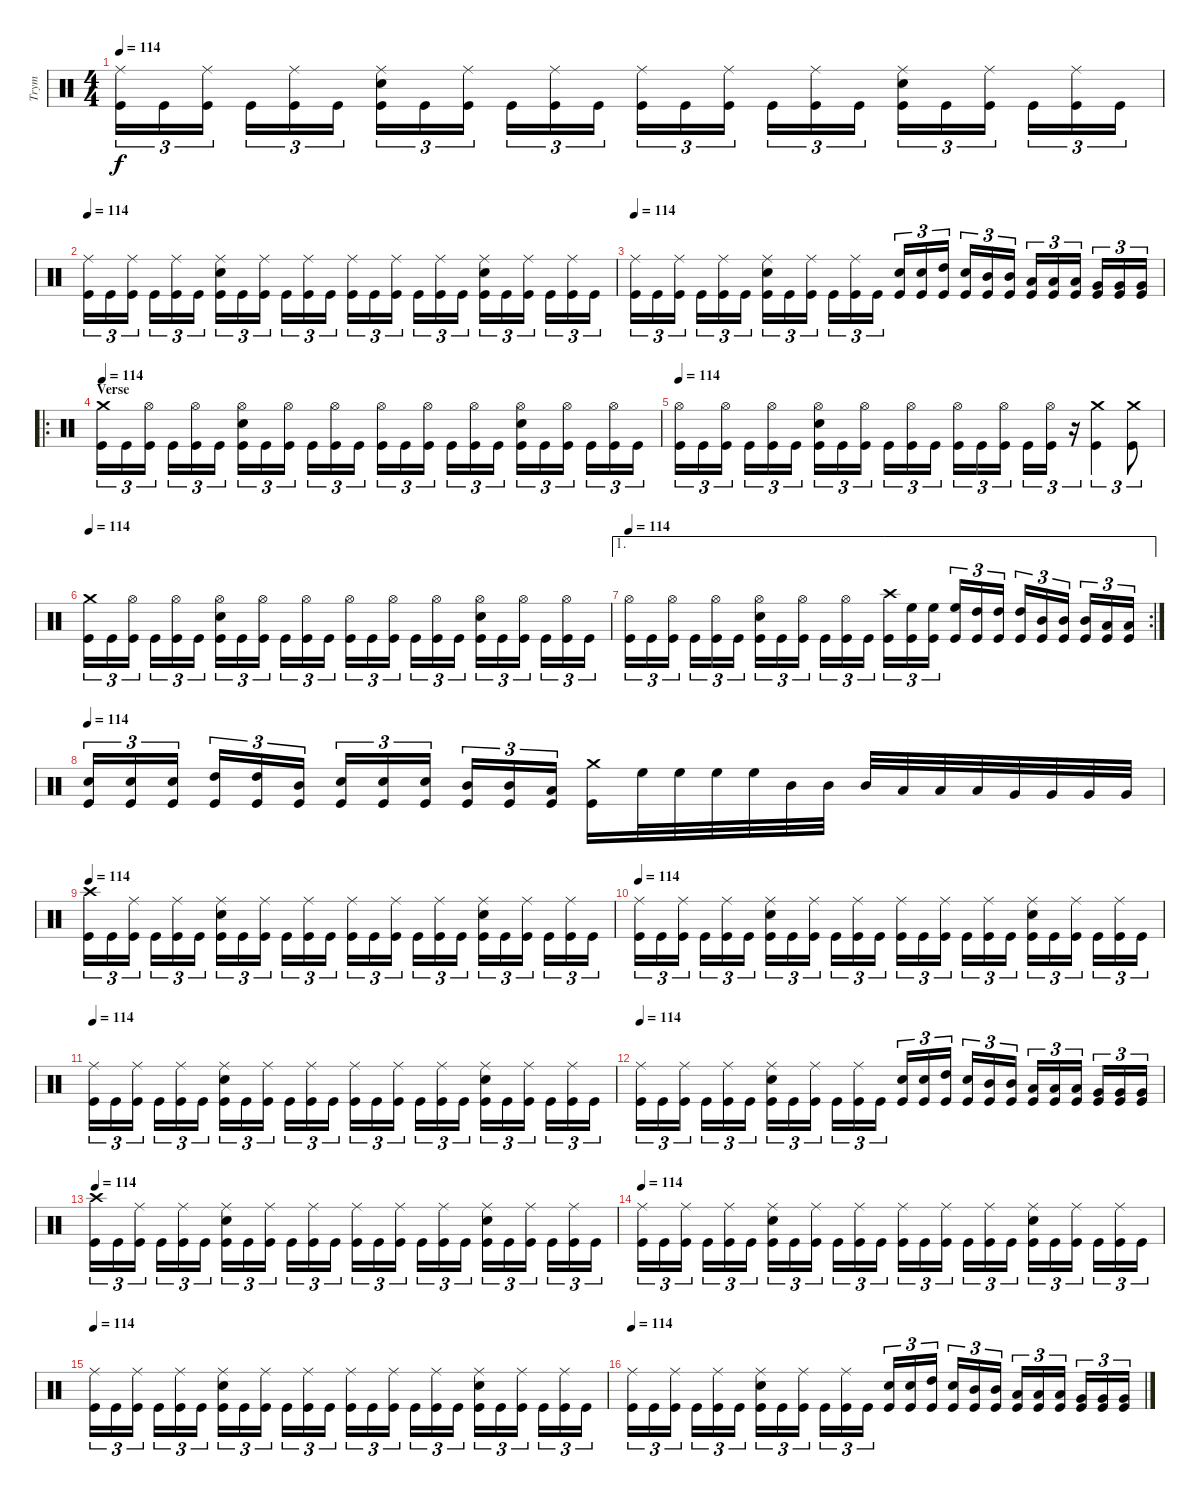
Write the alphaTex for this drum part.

\track ("Trym" "Trym") {instrument percussion}
\staff {score}
\articulation defaults
\ts (4 4)
\tempo 114
\clef neutral
\ks c
("Ride (middle)" "Kick (hit)").16{tu (3 2) dy f} "Kick (hit)".16{tu (3 2)} ("Ride (middle)" "Kick (hit)").16{tu (3 2)} "Kick (hit)".16{tu (3 2)} ("Ride (middle)" "Kick (hit)").16{tu (3 2)} "Kick (hit)".16{tu (3 2)} ("Ride (middle)" "Electric Snare (hit)" "Kick (hit)").16{tu (3 2)} "Kick (hit)".16{tu (3 2)} ("Ride (middle)" "Kick (hit)").16{tu (3 2)} "Kick (hit)".16{tu (3 2)} ("Ride (middle)" "Kick (hit)").16{tu (3 2)} "Kick (hit)".16{tu (3 2)} ("Ride (middle)" "Kick (hit)").16{tu (3 2)} "Kick (hit)".16{tu (3 2)} ("Ride (middle)" "Kick (hit)").16{tu (3 2)} "Kick (hit)".16{tu (3 2)} ("Ride (middle)" "Kick (hit)").16{tu (3 2)} "Kick (hit)".16{tu (3 2)} ("Ride (middle)" "Electric Snare (hit)" "Kick (hit)").16{tu (3 2)} "Kick (hit)".16{tu (3 2)} ("Ride (middle)" "Kick (hit)").16{tu (3 2)} "Kick (hit)".16{tu (3 2)} ("Ride (middle)" "Kick (hit)").16{tu (3 2)} "Kick (hit)".16{tu (3 2)} |
\tempo 114
("Ride (middle)" "Kick (hit)").16{tu (3 2)} "Kick (hit)".16{tu (3 2)} ("Ride (middle)" "Kick (hit)").16{tu (3 2)} "Kick (hit)".16{tu (3 2)} ("Ride (middle)" "Kick (hit)").16{tu (3 2)} "Kick (hit)".16{tu (3 2)} ("Ride (middle)" "Electric Snare (hit)" "Kick (hit)").16{tu (3 2)} "Kick (hit)".16{tu (3 2)} ("Ride (middle)" "Kick (hit)").16{tu (3 2)} "Kick (hit)".16{tu (3 2)} ("Ride (middle)" "Kick (hit)").16{tu (3 2)} "Kick (hit)".16{tu (3 2)} ("Ride (middle)" "Kick (hit)").16{tu (3 2)} "Kick (hit)".16{tu (3 2)} ("Ride (middle)" "Kick (hit)").16{tu (3 2)} "Kick (hit)".16{tu (3 2)} ("Ride (middle)" "Kick (hit)").16{tu (3 2)} "Kick (hit)".16{tu (3 2)} ("Ride (middle)" "Electric Snare (hit)" "Kick (hit)").16{tu (3 2)} "Kick (hit)".16{tu (3 2)} ("Ride (middle)" "Kick (hit)").16{tu (3 2)} "Kick (hit)".16{tu (3 2)} ("Ride (middle)" "Kick (hit)").16{tu (3 2)} "Kick (hit)".16{tu (3 2)} |
\tempo 114
("Ride (middle)" "Kick (hit)").16{tu (3 2)} "Kick (hit)".16{tu (3 2)} ("Ride (middle)" "Kick (hit)").16{tu (3 2)} "Kick (hit)".16{tu (3 2)} ("Ride (middle)" "Kick (hit)").16{tu (3 2)} "Kick (hit)".16{tu (3 2)} ("Ride (middle)" "Electric Snare (hit)" "Kick (hit)").16{tu (3 2)} "Kick (hit)".16{tu (3 2)} ("Ride (middle)" "Kick (hit)").16{tu (3 2)} "Kick (hit)".16{tu (3 2)} ("Ride (middle)" "Kick (hit)").16{tu (3 2)} "Kick (hit)".16{tu (3 2)} ("Electric Snare (hit)" "Kick (hit)").16{tu (3 2)} ("Electric Snare (hit)" "Kick (hit)").16{tu (3 2)} ("High Tom (hit)" "Kick (hit)").16{tu (3 2)} ("Electric Snare (hit)" "Kick (hit)").16{tu (3 2)} ("Mid Tom (hit)" "Kick (hit)").16{tu (3 2)} ("Mid Tom (hit)" "Kick (hit)").16{tu (3 2)} ("Low Tom (hit)" "Kick (hit)").16{tu (3 2)} ("Low Tom (hit)" "Kick (hit)").16{tu (3 2)} ("Low Tom (hit)" "Kick (hit)").16{tu (3 2)} ("Very Low Tom (hit)" "Kick (hit)").16{tu (3 2)} ("Very Low Tom (hit)" "Kick (hit)").16{tu (3 2)} ("Very Low Tom (hit)" "Kick (hit)").16{tu (3 2)} |
\ro
\section ("" "Verse")
\tempo 114
("Crash medium (hit)" "Kick (hit)").16{tu (3 2)} "Kick (hit)".16{tu (3 2)} ("Hi-Hat (open)" "Kick (hit)").16{tu (3 2)} "Kick (hit)".16{tu (3 2)} ("Hi-Hat (open)" "Kick (hit)").16{tu (3 2)} "Kick (hit)".16{tu (3 2)} ("Hi-Hat (open)" "Electric Snare (hit)" "Kick (hit)").16{tu (3 2)} "Kick (hit)".16{tu (3 2)} ("Hi-Hat (open)" "Kick (hit)").16{tu (3 2)} "Kick (hit)".16{tu (3 2)} ("Hi-Hat (open)" "Kick (hit)").16{tu (3 2)} "Kick (hit)".16{tu (3 2)} ("Hi-Hat (open)" "Kick (hit)").16{tu (3 2)} "Kick (hit)".16{tu (3 2)} ("Hi-Hat (open)" "Kick (hit)").16{tu (3 2)} "Kick (hit)".16{tu (3 2)} ("Hi-Hat (open)" "Kick (hit)").16{tu (3 2)} "Kick (hit)".16{tu (3 2)} ("Hi-Hat (open)" "Electric Snare (hit)" "Kick (hit)").16{tu (3 2)} "Kick (hit)".16{tu (3 2)} ("Hi-Hat (open)" "Kick (hit)").16{tu (3 2)} "Kick (hit)".16{tu (3 2)} ("Hi-Hat (open)" "Kick (hit)").16{tu (3 2)} "Kick (hit)".16{tu (3 2)} |
\tempo 114
("Hi-Hat (open)" "Kick (hit)").16{tu (3 2)} "Kick (hit)".16{tu (3 2)} ("Hi-Hat (open)" "Kick (hit)").16{tu (3 2)} "Kick (hit)".16{tu (3 2)} ("Hi-Hat (open)" "Kick (hit)").16{tu (3 2)} "Kick (hit)".16{tu (3 2)} ("Hi-Hat (open)" "Electric Snare (hit)" "Kick (hit)").16{tu (3 2)} "Kick (hit)".16{tu (3 2)} ("Hi-Hat (open)" "Kick (hit)").16{tu (3 2)} "Kick (hit)".16{tu (3 2)} ("Hi-Hat (open)" "Kick (hit)").16{tu (3 2)} "Kick (hit)".16{tu (3 2)} ("Hi-Hat (open)" "Kick (hit)").16{tu (3 2)} "Kick (hit)".16{tu (3 2)} ("Hi-Hat (open)" "Kick (hit)").16{tu (3 2)} "Kick (hit)".16{tu (3 2)} ("Hi-Hat (open)" "Kick (hit)").16{tu (3 2)} r.16{tu (3 2)} ("Crash medium (hit)" "Kick (hit)").4{tu (3 2)} ("Crash medium (hit)" "Kick (hit)").8{tu (3 2)} |
\tempo 114
("Crash medium (hit)" "Kick (hit)").16{tu (3 2)} "Kick (hit)".16{tu (3 2)} ("Hi-Hat (open)" "Kick (hit)").16{tu (3 2)} "Kick (hit)".16{tu (3 2)} ("Hi-Hat (open)" "Kick (hit)").16{tu (3 2)} "Kick (hit)".16{tu (3 2)} ("Hi-Hat (open)" "Electric Snare (hit)" "Kick (hit)").16{tu (3 2)} "Kick (hit)".16{tu (3 2)} ("Hi-Hat (open)" "Kick (hit)").16{tu (3 2)} "Kick (hit)".16{tu (3 2)} ("Hi-Hat (open)" "Kick (hit)").16{tu (3 2)} "Kick (hit)".16{tu (3 2)} ("Hi-Hat (open)" "Kick (hit)").16{tu (3 2)} "Kick (hit)".16{tu (3 2)} ("Hi-Hat (open)" "Kick (hit)").16{tu (3 2)} "Kick (hit)".16{tu (3 2)} ("Hi-Hat (open)" "Kick (hit)").16{tu (3 2)} "Kick (hit)".16{tu (3 2)} ("Hi-Hat (open)" "Electric Snare (hit)" "Kick (hit)").16{tu (3 2)} "Kick (hit)".16{tu (3 2)} ("Hi-Hat (open)" "Kick (hit)").16{tu (3 2)} "Kick (hit)".16{tu (3 2)} ("Hi-Hat (open)" "Kick (hit)").16{tu (3 2)} "Kick (hit)".16{tu (3 2)} |
\ae 1
\rc 2
\tempo 114
("Hi-Hat (open)" "Kick (hit)").16{tu (3 2)} "Kick (hit)".16{tu (3 2)} ("Hi-Hat (open)" "Kick (hit)").16{tu (3 2)} "Kick (hit)".16{tu (3 2)} ("Hi-Hat (open)" "Kick (hit)").16{tu (3 2)} "Kick (hit)".16{tu (3 2)} ("Hi-Hat (open)" "Electric Snare (hit)" "Kick (hit)").16{tu (3 2)} "Kick (hit)".16{tu (3 2)} ("Hi-Hat (open)" "Kick (hit)").16{tu (3 2)} "Kick (hit)".16{tu (3 2)} ("Hi-Hat (open)" "Kick (hit)").16{tu (3 2)} "Kick (hit)".16{tu (3 2)} ("Crash high (hit)" "Kick (hit)").16{tu (3 2)} ("High Floor Tom (hit)" "Kick (hit)").16{tu (3 2)} ("High Floor Tom (hit)" "Kick (hit)").16{tu (3 2)} ("High Floor Tom (hit)" "Kick (hit)").16{tu (3 2)} ("High Tom (hit)" "Kick (hit)").16{tu (3 2)} ("High Tom (hit)" "Kick (hit)").16{tu (3 2)} ("High Tom (hit)" "Kick (hit)").16{tu (3 2)} ("Mid Tom (hit)" "Kick (hit)").16{tu (3 2)} ("Mid Tom (hit)" "Kick (hit)").16{tu (3 2)} ("Mid Tom (hit)" "Kick (hit)").16{tu (3 2)} ("Low Tom (hit)" "Kick (hit)").16{tu (3 2)} ("Low Tom (hit)" "Kick (hit)").16{tu (3 2)} |
\tempo 114
("Electric Snare (hit)" "Kick (hit)").16{tu (3 2)} ("Electric Snare (hit)" "Kick (hit)").16{tu (3 2)} ("Electric Snare (hit)" "Kick (hit)").16{tu (3 2)} ("High Tom (hit)" "Kick (hit)").16{tu (3 2)} ("High Tom (hit)" "Kick (hit)").16{tu (3 2)} ("Mid Tom (hit)" "Kick (hit)").16{tu (3 2)} ("Electric Snare (hit)" "Kick (hit)").16{tu (3 2)} ("Electric Snare (hit)" "Kick (hit)").16{tu (3 2)} ("Electric Snare (hit)" "Kick (hit)").16{tu (3 2)} ("Mid Tom (hit)" "Kick (hit)").16{tu (3 2)} ("Mid Tom (hit)" "Kick (hit)").16{tu (3 2)} ("Low Tom (hit)" "Kick (hit)").16{tu (3 2)} ("Crash medium (hit)" "Kick (hit)").16 "High Floor Tom (hit)".32 "High Floor Tom (hit)".32 "High Floor Tom (hit)".32 "High Floor Tom (hit)".32 "Mid Tom (hit)".32 "Mid Tom (hit)".32 "Mid Tom (hit)".32 "Low Tom (hit)".32 "Low Tom (hit)".32 "Low Tom (hit)".32 "Very Low Tom (hit)".32 "Very Low Tom (hit)".32 "Very Low Tom (hit)".32 "Very Low Tom (hit)".32 |
\tempo 114
("Crash high (hit)" "Kick (hit)").16{tu (3 2)} "Kick (hit)".16{tu (3 2)} ("Ride (middle)" "Kick (hit)").16{tu (3 2)} "Kick (hit)".16{tu (3 2)} ("Ride (middle)" "Kick (hit)").16{tu (3 2)} "Kick (hit)".16{tu (3 2)} ("Ride (middle)" "Electric Snare (hit)" "Kick (hit)").16{tu (3 2)} "Kick (hit)".16{tu (3 2)} ("Ride (middle)" "Kick (hit)").16{tu (3 2)} "Kick (hit)".16{tu (3 2)} ("Ride (middle)" "Kick (hit)").16{tu (3 2)} "Kick (hit)".16{tu (3 2)} ("Ride (middle)" "Kick (hit)").16{tu (3 2)} "Kick (hit)".16{tu (3 2)} ("Ride (middle)" "Kick (hit)").16{tu (3 2)} "Kick (hit)".16{tu (3 2)} ("Ride (middle)" "Kick (hit)").16{tu (3 2)} "Kick (hit)".16{tu (3 2)} ("Ride (middle)" "Electric Snare (hit)" "Kick (hit)").16{tu (3 2)} "Kick (hit)".16{tu (3 2)} ("Ride (middle)" "Kick (hit)").16{tu (3 2)} "Kick (hit)".16{tu (3 2)} ("Ride (middle)" "Kick (hit)").16{tu (3 2)} "Kick (hit)".16{tu (3 2)} |
\tempo 114
("Ride (middle)" "Kick (hit)").16{tu (3 2)} "Kick (hit)".16{tu (3 2)} ("Ride (middle)" "Kick (hit)").16{tu (3 2)} "Kick (hit)".16{tu (3 2)} ("Ride (middle)" "Kick (hit)").16{tu (3 2)} "Kick (hit)".16{tu (3 2)} ("Ride (middle)" "Electric Snare (hit)" "Kick (hit)").16{tu (3 2)} "Kick (hit)".16{tu (3 2)} ("Ride (middle)" "Kick (hit)").16{tu (3 2)} "Kick (hit)".16{tu (3 2)} ("Ride (middle)" "Kick (hit)").16{tu (3 2)} "Kick (hit)".16{tu (3 2)} ("Ride (middle)" "Kick (hit)").16{tu (3 2)} "Kick (hit)".16{tu (3 2)} ("Ride (middle)" "Kick (hit)").16{tu (3 2)} "Kick (hit)".16{tu (3 2)} ("Ride (middle)" "Kick (hit)").16{tu (3 2)} "Kick (hit)".16{tu (3 2)} ("Ride (middle)" "Electric Snare (hit)" "Kick (hit)").16{tu (3 2)} "Kick (hit)".16{tu (3 2)} ("Ride (middle)" "Kick (hit)").16{tu (3 2)} "Kick (hit)".16{tu (3 2)} ("Ride (middle)" "Kick (hit)").16{tu (3 2)} "Kick (hit)".16{tu (3 2)} |
\tempo 114
("Ride (middle)" "Kick (hit)").16{tu (3 2)} "Kick (hit)".16{tu (3 2)} ("Ride (middle)" "Kick (hit)").16{tu (3 2)} "Kick (hit)".16{tu (3 2)} ("Ride (middle)" "Kick (hit)").16{tu (3 2)} "Kick (hit)".16{tu (3 2)} ("Ride (middle)" "Electric Snare (hit)" "Kick (hit)").16{tu (3 2)} "Kick (hit)".16{tu (3 2)} ("Ride (middle)" "Kick (hit)").16{tu (3 2)} "Kick (hit)".16{tu (3 2)} ("Ride (middle)" "Kick (hit)").16{tu (3 2)} "Kick (hit)".16{tu (3 2)} ("Ride (middle)" "Kick (hit)").16{tu (3 2)} "Kick (hit)".16{tu (3 2)} ("Ride (middle)" "Kick (hit)").16{tu (3 2)} "Kick (hit)".16{tu (3 2)} ("Ride (middle)" "Kick (hit)").16{tu (3 2)} "Kick (hit)".16{tu (3 2)} ("Ride (middle)" "Electric Snare (hit)" "Kick (hit)").16{tu (3 2)} "Kick (hit)".16{tu (3 2)} ("Ride (middle)" "Kick (hit)").16{tu (3 2)} "Kick (hit)".16{tu (3 2)} ("Ride (middle)" "Kick (hit)").16{tu (3 2)} "Kick (hit)".16{tu (3 2)} |
\tempo 114
("Ride (middle)" "Kick (hit)").16{tu (3 2)} "Kick (hit)".16{tu (3 2)} ("Ride (middle)" "Kick (hit)").16{tu (3 2)} "Kick (hit)".16{tu (3 2)} ("Ride (middle)" "Kick (hit)").16{tu (3 2)} "Kick (hit)".16{tu (3 2)} ("Ride (middle)" "Electric Snare (hit)" "Kick (hit)").16{tu (3 2)} "Kick (hit)".16{tu (3 2)} ("Ride (middle)" "Kick (hit)").16{tu (3 2)} "Kick (hit)".16{tu (3 2)} ("Ride (middle)" "Kick (hit)").16{tu (3 2)} "Kick (hit)".16{tu (3 2)} ("Electric Snare (hit)" "Kick (hit)").16{tu (3 2)} ("Electric Snare (hit)" "Kick (hit)").16{tu (3 2)} ("High Tom (hit)" "Kick (hit)").16{tu (3 2)} ("Electric Snare (hit)" "Kick (hit)").16{tu (3 2)} ("Mid Tom (hit)" "Kick (hit)").16{tu (3 2)} ("Mid Tom (hit)" "Kick (hit)").16{tu (3 2)} ("Low Tom (hit)" "Kick (hit)").16{tu (3 2)} ("Low Tom (hit)" "Kick (hit)").16{tu (3 2)} ("Low Tom (hit)" "Kick (hit)").16{tu (3 2)} ("Very Low Tom (hit)" "Kick (hit)").16{tu (3 2)} ("Very Low Tom (hit)" "Kick (hit)").16{tu (3 2)} ("Very Low Tom (hit)" "Kick (hit)").16{tu (3 2)} |
\tempo 114
("Crash high (hit)" "Kick (hit)").16{tu (3 2)} "Kick (hit)".16{tu (3 2)} ("Ride (middle)" "Kick (hit)").16{tu (3 2)} "Kick (hit)".16{tu (3 2)} ("Ride (middle)" "Kick (hit)").16{tu (3 2)} "Kick (hit)".16{tu (3 2)} ("Ride (middle)" "Electric Snare (hit)" "Kick (hit)").16{tu (3 2)} "Kick (hit)".16{tu (3 2)} ("Ride (middle)" "Kick (hit)").16{tu (3 2)} "Kick (hit)".16{tu (3 2)} ("Ride (middle)" "Kick (hit)").16{tu (3 2)} "Kick (hit)".16{tu (3 2)} ("Ride (middle)" "Kick (hit)").16{tu (3 2)} "Kick (hit)".16{tu (3 2)} ("Ride (middle)" "Kick (hit)").16{tu (3 2)} "Kick (hit)".16{tu (3 2)} ("Ride (middle)" "Kick (hit)").16{tu (3 2)} "Kick (hit)".16{tu (3 2)} ("Ride (middle)" "Electric Snare (hit)" "Kick (hit)").16{tu (3 2)} "Kick (hit)".16{tu (3 2)} ("Ride (middle)" "Kick (hit)").16{tu (3 2)} "Kick (hit)".16{tu (3 2)} ("Ride (middle)" "Kick (hit)").16{tu (3 2)} "Kick (hit)".16{tu (3 2)} |
\tempo 114
("Ride (middle)" "Kick (hit)").16{tu (3 2)} "Kick (hit)".16{tu (3 2)} ("Ride (middle)" "Kick (hit)").16{tu (3 2)} "Kick (hit)".16{tu (3 2)} ("Ride (middle)" "Kick (hit)").16{tu (3 2)} "Kick (hit)".16{tu (3 2)} ("Ride (middle)" "Electric Snare (hit)" "Kick (hit)").16{tu (3 2)} "Kick (hit)".16{tu (3 2)} ("Ride (middle)" "Kick (hit)").16{tu (3 2)} "Kick (hit)".16{tu (3 2)} ("Ride (middle)" "Kick (hit)").16{tu (3 2)} "Kick (hit)".16{tu (3 2)} ("Ride (middle)" "Kick (hit)").16{tu (3 2)} "Kick (hit)".16{tu (3 2)} ("Ride (middle)" "Kick (hit)").16{tu (3 2)} "Kick (hit)".16{tu (3 2)} ("Ride (middle)" "Kick (hit)").16{tu (3 2)} "Kick (hit)".16{tu (3 2)} ("Ride (middle)" "Electric Snare (hit)" "Kick (hit)").16{tu (3 2)} "Kick (hit)".16{tu (3 2)} ("Ride (middle)" "Kick (hit)").16{tu (3 2)} "Kick (hit)".16{tu (3 2)} ("Ride (middle)" "Kick (hit)").16{tu (3 2)} "Kick (hit)".16{tu (3 2)} |
\tempo 114
("Ride (middle)" "Kick (hit)").16{tu (3 2)} "Kick (hit)".16{tu (3 2)} ("Ride (middle)" "Kick (hit)").16{tu (3 2)} "Kick (hit)".16{tu (3 2)} ("Ride (middle)" "Kick (hit)").16{tu (3 2)} "Kick (hit)".16{tu (3 2)} ("Ride (middle)" "Electric Snare (hit)" "Kick (hit)").16{tu (3 2)} "Kick (hit)".16{tu (3 2)} ("Ride (middle)" "Kick (hit)").16{tu (3 2)} "Kick (hit)".16{tu (3 2)} ("Ride (middle)" "Kick (hit)").16{tu (3 2)} "Kick (hit)".16{tu (3 2)} ("Ride (middle)" "Kick (hit)").16{tu (3 2)} "Kick (hit)".16{tu (3 2)} ("Ride (middle)" "Kick (hit)").16{tu (3 2)} "Kick (hit)".16{tu (3 2)} ("Ride (middle)" "Kick (hit)").16{tu (3 2)} "Kick (hit)".16{tu (3 2)} ("Ride (middle)" "Electric Snare (hit)" "Kick (hit)").16{tu (3 2)} "Kick (hit)".16{tu (3 2)} ("Ride (middle)" "Kick (hit)").16{tu (3 2)} "Kick (hit)".16{tu (3 2)} ("Ride (middle)" "Kick (hit)").16{tu (3 2)} "Kick (hit)".16{tu (3 2)} |
\tempo 114
("Ride (middle)" "Kick (hit)").16{tu (3 2)} "Kick (hit)".16{tu (3 2)} ("Ride (middle)" "Kick (hit)").16{tu (3 2)} "Kick (hit)".16{tu (3 2)} ("Ride (middle)" "Kick (hit)").16{tu (3 2)} "Kick (hit)".16{tu (3 2)} ("Ride (middle)" "Electric Snare (hit)" "Kick (hit)").16{tu (3 2)} "Kick (hit)".16{tu (3 2)} ("Ride (middle)" "Kick (hit)").16{tu (3 2)} "Kick (hit)".16{tu (3 2)} ("Ride (middle)" "Kick (hit)").16{tu (3 2)} "Kick (hit)".16{tu (3 2)} ("Electric Snare (hit)" "Kick (hit)").16{tu (3 2)} ("Electric Snare (hit)" "Kick (hit)").16{tu (3 2)} ("High Tom (hit)" "Kick (hit)").16{tu (3 2)} ("Electric Snare (hit)" "Kick (hit)").16{tu (3 2)} ("Mid Tom (hit)" "Kick (hit)").16{tu (3 2)} ("Mid Tom (hit)" "Kick (hit)").16{tu (3 2)} ("Low Tom (hit)" "Kick (hit)").16{tu (3 2)} ("Low Tom (hit)" "Kick (hit)").16{tu (3 2)} ("Low Tom (hit)" "Kick (hit)").16{tu (3 2)} ("Very Low Tom (hit)" "Kick (hit)").16{tu (3 2)} ("Very Low Tom (hit)" "Kick (hit)").16{tu (3 2)} ("Very Low Tom (hit)" "Kick (hit)").16{tu (3 2)}
